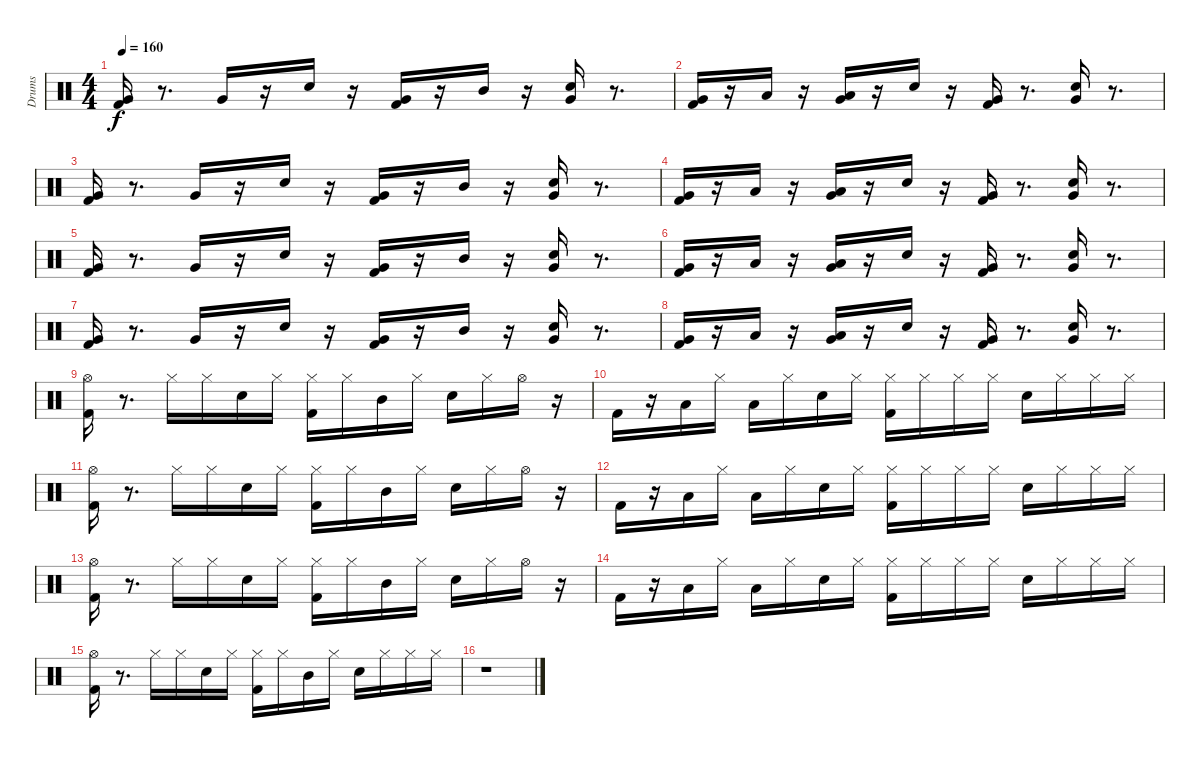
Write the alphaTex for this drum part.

\track ("Drums" "Drums") {instrument percussion}
\staff {score}
\articulation defaults
\ts (4 4)
\tempo 160
\clef neutral
\ks c
("Very Low Tom (hit)" "Kick (hit) 2").16{dy f} r.8{d} "Very Low Tom (hit)".16 r.16 "Electric Snare (hit)".16 r.16 ("Very Low Tom (hit)" "Kick (hit) 2").16 r.16 "Mid Tom (hit)".16 r.16 ("Very Low Tom (hit)" "Electric Snare (hit)").16 r.8{d} |
("Very Low Tom (hit)" "Kick (hit) 2").16 r.16 "Low Tom (hit)".16 r.16 ("Very Low Tom (hit)" "Low Tom (hit)").16 r.16 "Electric Snare (hit)".16 r.16 ("Very Low Tom (hit)" "Kick (hit) 2").16 r.8{d} ("Very Low Tom (hit)" "Electric Snare (hit)").16 r.8{d} |
("Very Low Tom (hit)" "Kick (hit) 2").16 r.8{d} "Very Low Tom (hit)".16 r.16 "Electric Snare (hit)".16 r.16 ("Very Low Tom (hit)" "Kick (hit) 2").16 r.16 "Mid Tom (hit)".16 r.16 ("Very Low Tom (hit)" "Electric Snare (hit)").16 r.8{d} |
("Very Low Tom (hit)" "Kick (hit) 2").16 r.16 "Low Tom (hit)".16 r.16 ("Very Low Tom (hit)" "Low Tom (hit)").16 r.16 "Electric Snare (hit)".16 r.16 ("Very Low Tom (hit)" "Kick (hit) 2").16 r.8{d} ("Very Low Tom (hit)" "Electric Snare (hit)").16 r.8{d} |
("Very Low Tom (hit)" "Kick (hit) 2").16 r.8{d} "Very Low Tom (hit)".16 r.16 "Electric Snare (hit)".16 r.16 ("Very Low Tom (hit)" "Kick (hit) 2").16 r.16 "Mid Tom (hit)".16 r.16 ("Very Low Tom (hit)" "Electric Snare (hit)").16 r.8{d} |
("Very Low Tom (hit)" "Kick (hit) 2").16 r.16 "Low Tom (hit)".16 r.16 ("Very Low Tom (hit)" "Low Tom (hit)").16 r.16 "Electric Snare (hit)".16 r.16 ("Very Low Tom (hit)" "Kick (hit) 2").16 r.8{d} ("Very Low Tom (hit)" "Electric Snare (hit)").16 r.8{d} |
("Very Low Tom (hit)" "Kick (hit) 2").16 r.8{d} "Very Low Tom (hit)".16 r.16 "Electric Snare (hit)".16 r.16 ("Very Low Tom (hit)" "Kick (hit) 2").16 r.16 "Mid Tom (hit)".16 r.16 ("Very Low Tom (hit)" "Electric Snare (hit)").16 r.8{d} |
("Very Low Tom (hit)" "Kick (hit) 2").16 r.16 "Low Tom (hit)".16 r.16 ("Very Low Tom (hit)" "Low Tom (hit)").16 r.16 "Electric Snare (hit)".16 r.16 ("Very Low Tom (hit)" "Kick (hit) 2").16 r.8{d} ("Very Low Tom (hit)" "Electric Snare (hit)").16 r.8{d} |
("Hi-Hat (open)" "Kick (hit) 2").16 r.8{d} "Hi-Hat (closed)".16 "Hi-Hat (closed)".16 "Electric Snare (hit)".16 "Hi-Hat (closed)".16 ("Hi-Hat (closed)" "Kick (hit) 2").16 "Hi-Hat (closed)".16 "Mid Tom (hit)".16 "Hi-Hat (closed)".16 "Electric Snare (hit)".16 "Hi-Hat (closed)".16 "Hi-Hat (open)".16 r.16 |
"Kick (hit) 2".16 r.16 "Low Tom (hit)".16 "Hi-Hat (closed)".16 "Low Tom (hit)".16 "Hi-Hat (closed)".16 "Electric Snare (hit)".16 "Hi-Hat (closed)".16 ("Hi-Hat (closed)" "Kick (hit) 2").16 "Hi-Hat (closed)".16 "Hi-Hat (closed)".16 "Hi-Hat (closed)".16 "Electric Snare (hit)".16 "Hi-Hat (closed)".16 "Hi-Hat (closed)".16 "Hi-Hat (closed)".16 |
("Hi-Hat (open)" "Kick (hit) 2").16 r.8{d} "Hi-Hat (closed)".16 "Hi-Hat (closed)".16 "Electric Snare (hit)".16 "Hi-Hat (closed)".16 ("Hi-Hat (closed)" "Kick (hit) 2").16 "Hi-Hat (closed)".16 "Mid Tom (hit)".16 "Hi-Hat (closed)".16 "Electric Snare (hit)".16 "Hi-Hat (closed)".16 "Hi-Hat (open)".16 r.16 |
"Kick (hit) 2".16 r.16 "Low Tom (hit)".16 "Hi-Hat (closed)".16 "Low Tom (hit)".16 "Hi-Hat (closed)".16 "Electric Snare (hit)".16 "Hi-Hat (closed)".16 ("Hi-Hat (closed)" "Kick (hit) 2").16 "Hi-Hat (closed)".16 "Hi-Hat (closed)".16 "Hi-Hat (closed)".16 "Electric Snare (hit)".16 "Hi-Hat (closed)".16 "Hi-Hat (closed)".16 "Hi-Hat (closed)".16 |
("Hi-Hat (open)" "Kick (hit) 2").16 r.8{d} "Hi-Hat (closed)".16 "Hi-Hat (closed)".16 "Electric Snare (hit)".16 "Hi-Hat (closed)".16 ("Hi-Hat (closed)" "Kick (hit) 2").16 "Hi-Hat (closed)".16 "Mid Tom (hit)".16 "Hi-Hat (closed)".16 "Electric Snare (hit)".16 "Hi-Hat (closed)".16 "Hi-Hat (open)".16 r.16 |
"Kick (hit) 2".16 r.16 "Low Tom (hit)".16 "Hi-Hat (closed)".16 "Low Tom (hit)".16 "Hi-Hat (closed)".16 "Electric Snare (hit)".16 "Hi-Hat (closed)".16 ("Hi-Hat (closed)" "Kick (hit) 2").16 "Hi-Hat (closed)".16 "Hi-Hat (closed)".16 "Hi-Hat (closed)".16 "Electric Snare (hit)".16 "Hi-Hat (closed)".16 "Hi-Hat (closed)".16 "Hi-Hat (closed)".16 |
("Hi-Hat (open)" "Kick (hit) 2").16 r.8{d} "Hi-Hat (closed)".16 "Hi-Hat (closed)".16 "Electric Snare (hit)".16 "Hi-Hat (closed)".16 ("Hi-Hat (closed)" "Kick (hit) 2").16 "Hi-Hat (closed)".16 "Mid Tom (hit)".16 "Hi-Hat (closed)".16 "Electric Snare (hit)".16 "Hi-Hat (closed)".16 "Hi-Hat (closed)".16 "Hi-Hat (closed)".16 |
r.1
